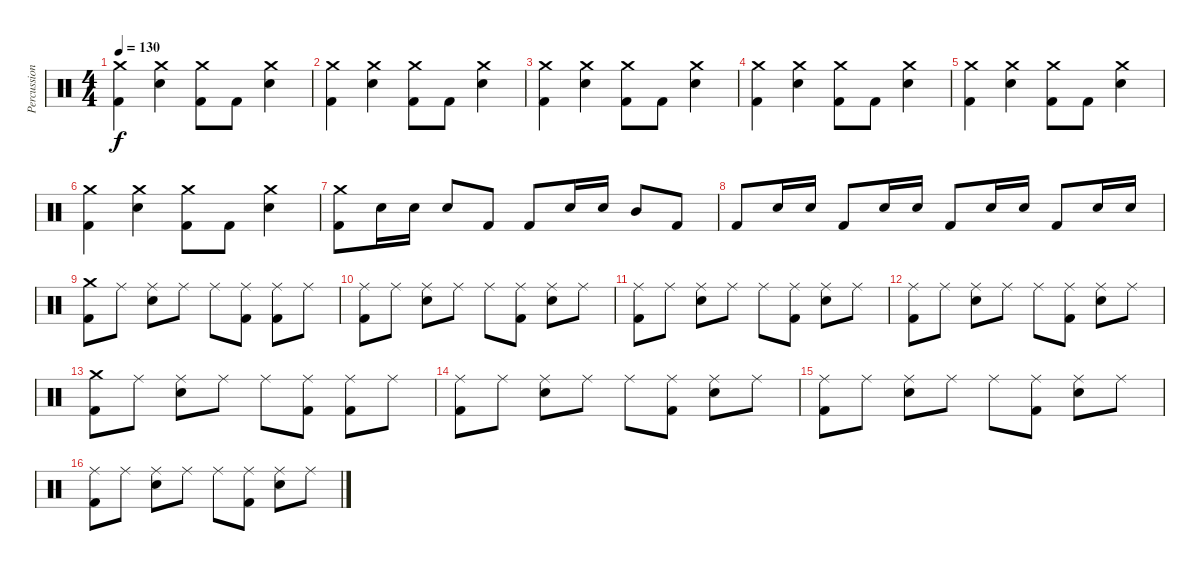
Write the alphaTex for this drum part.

\track ("Percussion" "Percussion") {instrument percussion}
\staff {score}
\articulation defaults
\ts (4 4)
\tempo 130
\clef neutral
\ks c
("Crash medium (hit)" "Kick (hit) 2").4{dy f} ("Crash medium (hit)" "Snare (hit) 2").4 ("Crash medium (hit)" "Kick (hit) 2").8 "Kick (hit) 2".8 ("Crash medium (hit)" "Snare (hit) 2").4 |
("Crash medium (hit)" "Kick (hit) 2").4 ("Crash medium (hit)" "Snare (hit) 2").4 ("Crash medium (hit)" "Kick (hit) 2").8 "Kick (hit) 2".8 ("Crash medium (hit)" "Snare (hit) 2").4 |
("Crash medium (hit)" "Kick (hit) 2").4 ("Crash medium (hit)" "Snare (hit) 2").4 ("Crash medium (hit)" "Kick (hit) 2").8 "Kick (hit) 2".8 ("Crash medium (hit)" "Snare (hit) 2").4 |
("Crash medium (hit)" "Kick (hit) 2").4 ("Crash medium (hit)" "Snare (hit) 2").4 ("Crash medium (hit)" "Kick (hit) 2").8 "Kick (hit) 2".8 ("Crash medium (hit)" "Snare (hit) 2").4 |
("Crash medium (hit)" "Kick (hit) 2").4 ("Crash medium (hit)" "Snare (hit) 2").4 ("Crash medium (hit)" "Kick (hit) 2").8 "Kick (hit) 2".8 ("Crash medium (hit)" "Snare (hit) 2").4 |
("Crash medium (hit)" "Kick (hit) 2").4 ("Crash medium (hit)" "Snare (hit) 2").4 ("Crash medium (hit)" "Kick (hit) 2").8 "Kick (hit) 2".8 ("Crash medium (hit)" "Snare (hit) 2").4 |
("Crash medium (hit)" "Kick (hit) 2").8 "Snare (hit) 2".16 "Snare (hit) 2".16 "Snare (hit) 2".8 "Kick (hit) 2".8 "Kick (hit) 2".8 "Snare (hit) 2".16 "Snare (hit) 2".16 "Mid Tom (hit)".8 "Kick (hit) 2".8 |
"Kick (hit) 2".8 "Snare (hit) 2".16 "Snare (hit) 2".16 "Kick (hit) 2".8 "Snare (hit) 2".16 "Snare (hit) 2".16 "Kick (hit) 2".8 "Snare (hit) 2".16 "Snare (hit) 2".16 "Kick (hit) 2".8 "Snare (hit) 2".16 "Snare (hit) 2".16 |
("Crash medium (hit)" "Kick (hit) 2").8 "Ride (middle)".8 ("Ride (middle)" "Snare (hit) 2").8 "Ride (middle)".8 "Ride (middle)".8 ("Ride (middle)" "Kick (hit) 2").8 ("Ride (middle)" "Kick (hit) 2").8 "Ride (middle)".8 |
("Ride (middle)" "Kick (hit) 2").8 "Ride (middle)".8 ("Ride (middle)" "Snare (hit) 2").8 "Ride (middle)".8 "Ride (middle)".8 ("Ride (middle)" "Kick (hit) 2").8 ("Ride (middle)" "Snare (hit) 2").8 "Ride (middle)".8 |
("Ride (middle)" "Kick (hit) 2").8 "Ride (middle)".8 ("Ride (middle)" "Snare (hit) 2").8 "Ride (middle)".8 "Ride (middle)".8 ("Ride (middle)" "Kick (hit) 2").8 ("Ride (middle)" "Snare (hit) 2").8 "Ride (middle)".8 |
("Ride (middle)" "Kick (hit) 2").8 "Ride (middle)".8 ("Ride (middle)" "Snare (hit) 2").8 "Ride (middle)".8 "Ride (middle)".8 ("Ride (middle)" "Kick (hit) 2").8 ("Ride (middle)" "Snare (hit) 2").8 "Ride (middle)".8 |
("Crash medium (hit)" "Kick (hit) 2").8 "Ride (middle)".8 ("Ride (middle)" "Snare (hit) 2").8 "Ride (middle)".8 "Ride (middle)".8 ("Ride (middle)" "Kick (hit) 2").8 ("Ride (middle)" "Kick (hit) 2").8 "Ride (middle)".8 |
("Ride (middle)" "Kick (hit) 2").8 "Ride (middle)".8 ("Ride (middle)" "Snare (hit) 2").8 "Ride (middle)".8 "Ride (middle)".8 ("Ride (middle)" "Kick (hit) 2").8 ("Ride (middle)" "Snare (hit) 2").8 "Ride (middle)".8 |
("Ride (middle)" "Kick (hit) 2").8 "Ride (middle)".8 ("Ride (middle)" "Snare (hit) 2").8 "Ride (middle)".8 "Ride (middle)".8 ("Ride (middle)" "Kick (hit) 2").8 ("Ride (middle)" "Snare (hit) 2").8 "Ride (middle)".8 |
("Ride (middle)" "Kick (hit) 2").8 "Ride (middle)".8 ("Ride (middle)" "Snare (hit) 2").8 "Ride (middle)".8 "Ride (middle)".8 ("Ride (middle)" "Kick (hit) 2").8 ("Ride (middle)" "Snare (hit) 2").8 "Ride (middle)".8
